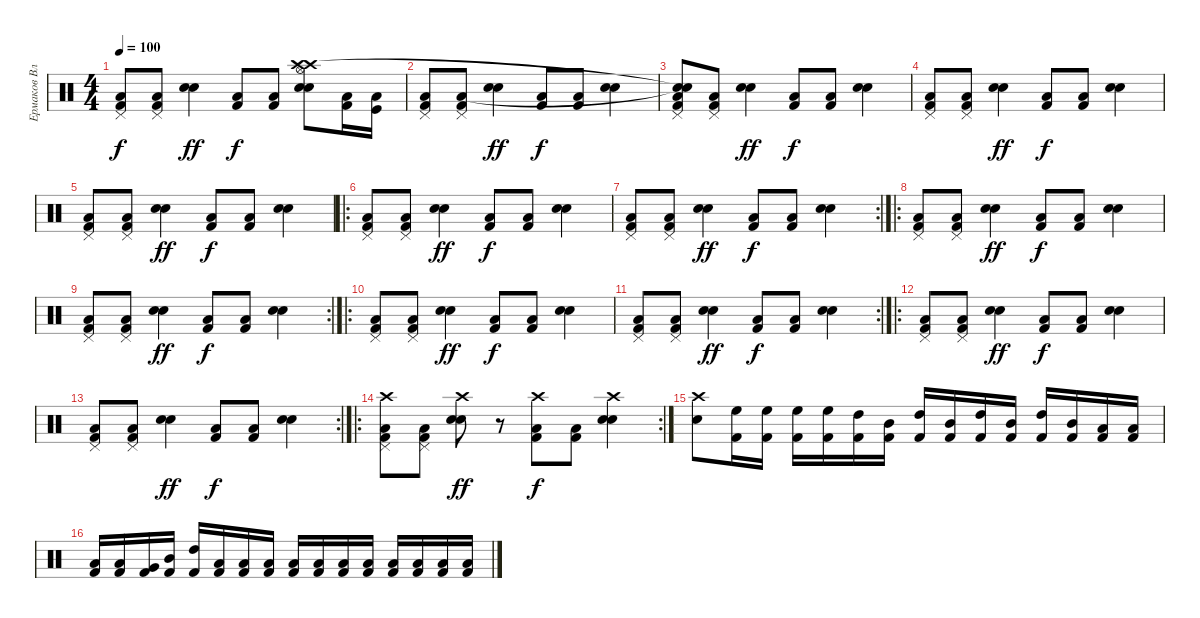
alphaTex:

\track ("Ермаков Владимир" "Ермаков Вл") {instrument percussion}
\staff {score}
\articulation defaults
\ts (4 4)
\tempo 100
\clef neutral
\ks c
("Kick (hit) 2" "Pedal Hi-Hat (hit)" "Low Floor Tom (hit)").8{dy f} ("Kick (hit) 2" "Pedal Hi-Hat (hit)" "Low Floor Tom (hit)").8 ("Hand Clap (hit)" "Electric Snare (hit)").4{dy ff} ("Kick (hit) 2" "Low Floor Tom (hit)").8{dy f} ("Kick (hit) 2" "Low Floor Tom (hit)").8 ("Hand Clap (hit)" "Electric Snare (hit)" "Hi-Hat (open)" "Crash high (hit)" "Crash high (hit)").8 ("Kick (hit) 2" "Low Floor Tom (hit)").16 ("Kick (hit)" "Low Tom (hit)").16 |
("Kick (hit) 2" "Pedal Hi-Hat (hit)" "Low Floor Tom (hit)").8 ("Kick (hit) 2" "Pedal Hi-Hat (hit)" "Low Floor Tom (hit)").8 ("Hand Clap (hit)" "Electric Snare (hit)").4{dy ff} ("Kick (hit) 2" "Low Floor Tom (hit)").8{dy f} ("Kick (hit) 2" "Low Floor Tom (hit)").8 ("Hand Clap (hit)" "Electric Snare (hit)").4 |
("Kick (hit) 2" "Pedal Hi-Hat (hit)" "Snare (hit)"{t} "Snare (hit)"{t} "Low Floor Tom (hit)").8 ("Kick (hit) 2" "Pedal Hi-Hat (hit)" "Low Floor Tom (hit)").8 ("Hand Clap (hit)" "Electric Snare (hit)").4{dy ff} ("Kick (hit) 2" "Low Floor Tom (hit)").8{dy f} ("Kick (hit) 2" "Low Floor Tom (hit)").8 ("Hand Clap (hit)" "Electric Snare (hit)").4 |
("Kick (hit) 2" "Pedal Hi-Hat (hit)" "Low Floor Tom (hit)").8 ("Kick (hit) 2" "Pedal Hi-Hat (hit)" "Low Floor Tom (hit)").8 ("Hand Clap (hit)" "Electric Snare (hit)").4{dy ff} ("Kick (hit) 2" "Low Floor Tom (hit)").8{dy f} ("Kick (hit) 2" "Low Floor Tom (hit)").8 ("Hand Clap (hit)" "Electric Snare (hit)").4 |
("Kick (hit) 2" "Pedal Hi-Hat (hit)" "Low Floor Tom (hit)").8 ("Kick (hit) 2" "Pedal Hi-Hat (hit)" "Low Floor Tom (hit)").8 ("Hand Clap (hit)" "Electric Snare (hit)").4{dy ff} ("Kick (hit) 2" "Low Floor Tom (hit)").8{dy f} ("Kick (hit) 2" "Low Floor Tom (hit)").8 ("Hand Clap (hit)" "Electric Snare (hit)").4 |
\ro
("Kick (hit) 2" "Pedal Hi-Hat (hit)" "Low Floor Tom (hit)").8 ("Kick (hit) 2" "Pedal Hi-Hat (hit)" "Low Floor Tom (hit)").8 ("Hand Clap (hit)" "Electric Snare (hit)").4{dy ff} ("Kick (hit) 2" "Low Floor Tom (hit)").8{dy f} ("Kick (hit) 2" "Low Floor Tom (hit)").8 ("Hand Clap (hit)" "Electric Snare (hit)").4 |
\rc 2
("Kick (hit) 2" "Pedal Hi-Hat (hit)" "Low Floor Tom (hit)").8 ("Kick (hit) 2" "Pedal Hi-Hat (hit)" "Low Floor Tom (hit)").8 ("Hand Clap (hit)" "Electric Snare (hit)").4{dy ff} ("Kick (hit) 2" "Low Floor Tom (hit)").8{dy f} ("Kick (hit) 2" "Low Floor Tom (hit)").8 ("Hand Clap (hit)" "Electric Snare (hit)").4 |
\ro
("Kick (hit) 2" "Pedal Hi-Hat (hit)" "Low Floor Tom (hit)").8 ("Kick (hit) 2" "Pedal Hi-Hat (hit)" "Low Floor Tom (hit)").8 ("Hand Clap (hit)" "Electric Snare (hit)").4{dy ff} ("Kick (hit) 2" "Low Floor Tom (hit)").8{dy f} ("Kick (hit) 2" "Low Floor Tom (hit)").8 ("Hand Clap (hit)" "Electric Snare (hit)").4 |
\rc 2
("Kick (hit) 2" "Pedal Hi-Hat (hit)" "Low Floor Tom (hit)").8 ("Kick (hit) 2" "Pedal Hi-Hat (hit)" "Low Floor Tom (hit)").8 ("Hand Clap (hit)" "Electric Snare (hit)").4{dy ff} ("Kick (hit) 2" "Low Floor Tom (hit)").8{dy f} ("Kick (hit) 2" "Low Floor Tom (hit)").8 ("Hand Clap (hit)" "Electric Snare (hit)").4 |
\ro
("Kick (hit) 2" "Pedal Hi-Hat (hit)" "Low Floor Tom (hit)").8 ("Kick (hit) 2" "Pedal Hi-Hat (hit)" "Low Floor Tom (hit)").8 ("Hand Clap (hit)" "Electric Snare (hit)").4{dy ff} ("Kick (hit) 2" "Low Floor Tom (hit)").8{dy f} ("Kick (hit) 2" "Low Floor Tom (hit)").8 ("Hand Clap (hit)" "Electric Snare (hit)").4 |
\rc 2
("Kick (hit) 2" "Pedal Hi-Hat (hit)" "Low Floor Tom (hit)").8 ("Kick (hit) 2" "Pedal Hi-Hat (hit)" "Low Floor Tom (hit)").8 ("Hand Clap (hit)" "Electric Snare (hit)").4{dy ff} ("Kick (hit) 2" "Low Floor Tom (hit)").8{dy f} ("Kick (hit) 2" "Low Floor Tom (hit)").8 ("Hand Clap (hit)" "Electric Snare (hit)").4 |
\ro
("Kick (hit) 2" "Pedal Hi-Hat (hit)" "Low Floor Tom (hit)").8 ("Kick (hit) 2" "Pedal Hi-Hat (hit)" "Low Floor Tom (hit)").8 ("Hand Clap (hit)" "Electric Snare (hit)").4{dy ff} ("Kick (hit) 2" "Low Floor Tom (hit)").8{dy f} ("Kick (hit) 2" "Low Floor Tom (hit)").8 ("Hand Clap (hit)" "Electric Snare (hit)").4 |
\rc 2
("Kick (hit) 2" "Pedal Hi-Hat (hit)" "Low Floor Tom (hit)").8 ("Kick (hit) 2" "Pedal Hi-Hat (hit)" "Low Floor Tom (hit)").8 ("Hand Clap (hit)" "Electric Snare (hit)").4{dy ff} ("Kick (hit) 2" "Low Floor Tom (hit)").8{dy f} ("Kick (hit) 2" "Low Floor Tom (hit)").8 ("Hand Clap (hit)" "Electric Snare (hit)").4 |
\ro
\rc 2
("Kick (hit) 2" "Pedal Hi-Hat (hit)" "Crash high (hit)" "Low Floor Tom (hit)").8 ("Kick (hit) 2" "Pedal Hi-Hat (hit)" "Low Floor Tom (hit)").8 ("Hand Clap (hit)" "Electric Snare (hit)" "Crash high (hit)").8{dy ff} r.8 ("Kick (hit) 2" "Crash high (hit)" "Low Floor Tom (hit)").8{dy f} ("Kick (hit) 2" "Low Floor Tom (hit)").8 ("Hand Clap (hit)" "Electric Snare (hit)" "Crash high (hit)").4 |
("Electric Snare (hit)" "Crash high (hit)").8 ("Kick (hit) 2" "High Floor Tom (hit)").16 ("Kick (hit) 2" "High Floor Tom (hit)").16 ("Kick (hit) 2" "High Floor Tom (hit)").16 ("Kick (hit) 2" "High Floor Tom (hit)").16 ("Kick (hit) 2" "High Tom (hit)").16 ("Kick (hit) 2" "Mid Tom (hit)").16 ("Kick (hit) 2" "High Tom (hit)").16 ("Kick (hit) 2" "Mid Tom (hit)").16 ("Kick (hit) 2" "High Tom (hit)").16 ("Kick (hit) 2" "Mid Tom (hit)").16 ("Kick (hit) 2" "High Tom (hit)").16 ("Kick (hit) 2" "Mid Tom (hit)").16 ("Kick (hit) 2" "Low Tom (hit)").16 ("Kick (hit) 2" "Low Tom (hit)").16 |
("Kick (hit) 2" "Low Tom (hit)").16 ("Kick (hit) 2" "Low Tom (hit)").16 ("Kick (hit) 2" "Very Low Tom (hit)").16 ("Kick (hit) 2" "Mid Tom (hit)").16 ("Kick (hit) 2" "High Tom (hit)").16 ("Kick (hit) 2" "Low Tom (hit)").16 ("Kick (hit) 2" "Low Floor Tom (hit)").16 ("Kick (hit) 2" "Low Floor Tom (hit)").16 ("Kick (hit) 2" "Low Floor Tom (hit)").16 ("Kick (hit) 2" "Low Floor Tom (hit)").16 ("Kick (hit) 2" "Low Tom (hit)").16 ("Kick (hit) 2" "Low Tom (hit)").16 ("Kick (hit) 2" "Low Tom (hit)").16 ("Kick (hit) 2" "Low Tom (hit)").16 ("Kick (hit) 2" "Low Tom (hit)").16 ("Kick (hit) 2" "Low Tom (hit)").16
